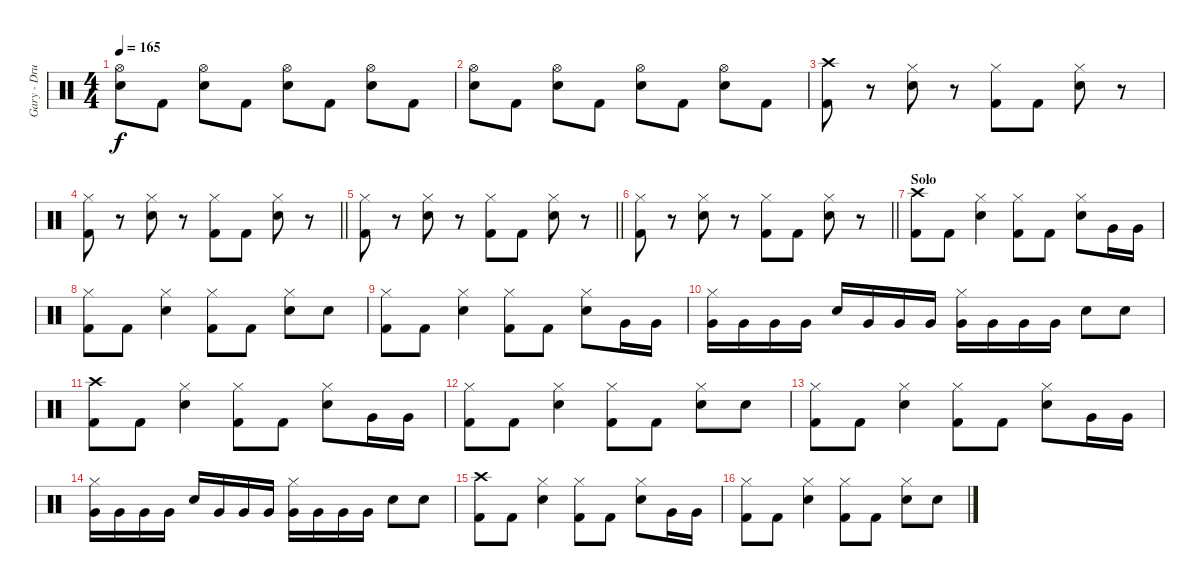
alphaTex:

\track ("Gary - Drums" "Gary - Dru") {instrument percussion}
\staff {score}
\articulation defaults
\ts (4 4)
\tempo 165
\clef neutral
\ks c
("Hi-Hat (open)" "Snare (hit) 2").8{dy f} "Kick (hit) 2".8 ("Hi-Hat (open)" "Snare (hit) 2").8 "Kick (hit) 2".8 ("Hi-Hat (open)" "Snare (hit) 2").8 "Kick (hit) 2".8 ("Hi-Hat (open)" "Snare (hit) 2").8 "Kick (hit) 2".8 |
("Hi-Hat (open)" "Snare (hit) 2").8 "Kick (hit) 2".8 ("Hi-Hat (open)" "Snare (hit) 2").8 "Kick (hit) 2".8 ("Hi-Hat (open)" "Snare (hit) 2").8 "Kick (hit) 2".8 ("Hi-Hat (open)" "Snare (hit) 2").8 "Kick (hit) 2".8 |
("Crash high (hit)" "Kick (hit) 2").8 r.8 ("Hi-Hat (closed)" "Snare (hit) 2").8 r.8 ("Hi-Hat (closed)" "Kick (hit) 2").8 "Kick (hit) 2".8 ("Hi-Hat (closed)" "Snare (hit) 2").8 r.8 |
\barLineRight lightlight
("Hi-Hat (closed)" "Kick (hit) 2").8 r.8 ("Hi-Hat (closed)" "Snare (hit) 2").8 r.8 ("Hi-Hat (closed)" "Kick (hit) 2").8 "Kick (hit) 2".8 ("Hi-Hat (closed)" "Snare (hit) 2").8 r.8 |
\barLineRight lightlight
("Hi-Hat (closed)" "Kick (hit) 2").8 r.8 ("Hi-Hat (closed)" "Snare (hit) 2").8 r.8 ("Hi-Hat (closed)" "Kick (hit) 2").8 "Kick (hit) 2".8 ("Hi-Hat (closed)" "Snare (hit) 2").8 r.8 |
\barLineRight lightlight
("Hi-Hat (closed)" "Kick (hit) 2").8 r.8 ("Hi-Hat (closed)" "Snare (hit) 2").8 r.8 ("Hi-Hat (closed)" "Kick (hit) 2").8 "Kick (hit) 2".8 ("Hi-Hat (closed)" "Snare (hit) 2").8 r.8 |
\section ("" "Solo")
("Crash high (hit)" "Kick (hit) 2").8 "Kick (hit) 2".8 ("Hi-Hat (closed)" "Snare (hit) 2").4 ("Hi-Hat (closed)" "Kick (hit) 2").8 "Kick (hit) 2".8 ("Hi-Hat (closed)" "Snare (hit) 2").8 "Very Low Tom (hit)".16 "Very Low Tom (hit)".16 |
("Hi-Hat (closed)" "Kick (hit) 2").8 "Kick (hit) 2".8 ("Hi-Hat (closed)" "Snare (hit) 2").4 ("Hi-Hat (closed)" "Kick (hit) 2").8 "Kick (hit) 2".8 ("Hi-Hat (closed)" "Snare (hit) 2").8 "Snare (hit) 2".8 |
("Hi-Hat (closed)" "Kick (hit) 2").8 "Kick (hit) 2".8 ("Hi-Hat (closed)" "Snare (hit) 2").4 ("Hi-Hat (closed)" "Kick (hit) 2").8 "Kick (hit) 2".8 ("Hi-Hat (closed)" "Snare (hit) 2").8 "Very Low Tom (hit)".16 "Very Low Tom (hit)".16 |
("Hi-Hat (closed)" "Very Low Tom (hit)").16 "Very Low Tom (hit)".16 "Very Low Tom (hit)".16 "Very Low Tom (hit)".16 "Snare (hit) 2".16 "Very Low Tom (hit)".16 "Very Low Tom (hit)".16 "Very Low Tom (hit)".16 ("Hi-Hat (closed)" "Very Low Tom (hit)").16 "Very Low Tom (hit)".16 "Very Low Tom (hit)".16 "Very Low Tom (hit)".16 "Snare (hit) 2".8 "Snare (hit) 2".8 |
("Crash high (hit)" "Kick (hit) 2").8 "Kick (hit) 2".8 ("Hi-Hat (closed)" "Snare (hit) 2").4 ("Hi-Hat (closed)" "Kick (hit) 2").8 "Kick (hit) 2".8 ("Hi-Hat (closed)" "Snare (hit) 2").8 "Very Low Tom (hit)".16 "Very Low Tom (hit)".16 |
("Hi-Hat (closed)" "Kick (hit) 2").8 "Kick (hit) 2".8 ("Hi-Hat (closed)" "Snare (hit) 2").4 ("Hi-Hat (closed)" "Kick (hit) 2").8 "Kick (hit) 2".8 ("Hi-Hat (closed)" "Snare (hit) 2").8 "Snare (hit) 2".8 |
("Hi-Hat (closed)" "Kick (hit) 2").8 "Kick (hit) 2".8 ("Hi-Hat (closed)" "Snare (hit) 2").4 ("Hi-Hat (closed)" "Kick (hit) 2").8 "Kick (hit) 2".8 ("Hi-Hat (closed)" "Snare (hit) 2").8 "Very Low Tom (hit)".16 "Very Low Tom (hit)".16 |
("Hi-Hat (closed)" "Very Low Tom (hit)").16 "Very Low Tom (hit)".16 "Very Low Tom (hit)".16 "Very Low Tom (hit)".16 "Snare (hit) 2".16 "Very Low Tom (hit)".16 "Very Low Tom (hit)".16 "Very Low Tom (hit)".16 ("Hi-Hat (closed)" "Very Low Tom (hit)").16 "Very Low Tom (hit)".16 "Very Low Tom (hit)".16 "Very Low Tom (hit)".16 "Snare (hit) 2".8 "Snare (hit) 2".8 |
("Crash high (hit)" "Kick (hit) 2").8 "Kick (hit) 2".8 ("Hi-Hat (closed)" "Snare (hit) 2").4 ("Hi-Hat (closed)" "Kick (hit) 2").8 "Kick (hit) 2".8 ("Hi-Hat (closed)" "Snare (hit) 2").8 "Very Low Tom (hit)".16 "Very Low Tom (hit)".16 |
("Hi-Hat (closed)" "Kick (hit) 2").8 "Kick (hit) 2".8 ("Hi-Hat (closed)" "Snare (hit) 2").4 ("Hi-Hat (closed)" "Kick (hit) 2").8 "Kick (hit) 2".8 ("Hi-Hat (closed)" "Snare (hit) 2").8 "Snare (hit) 2".8
